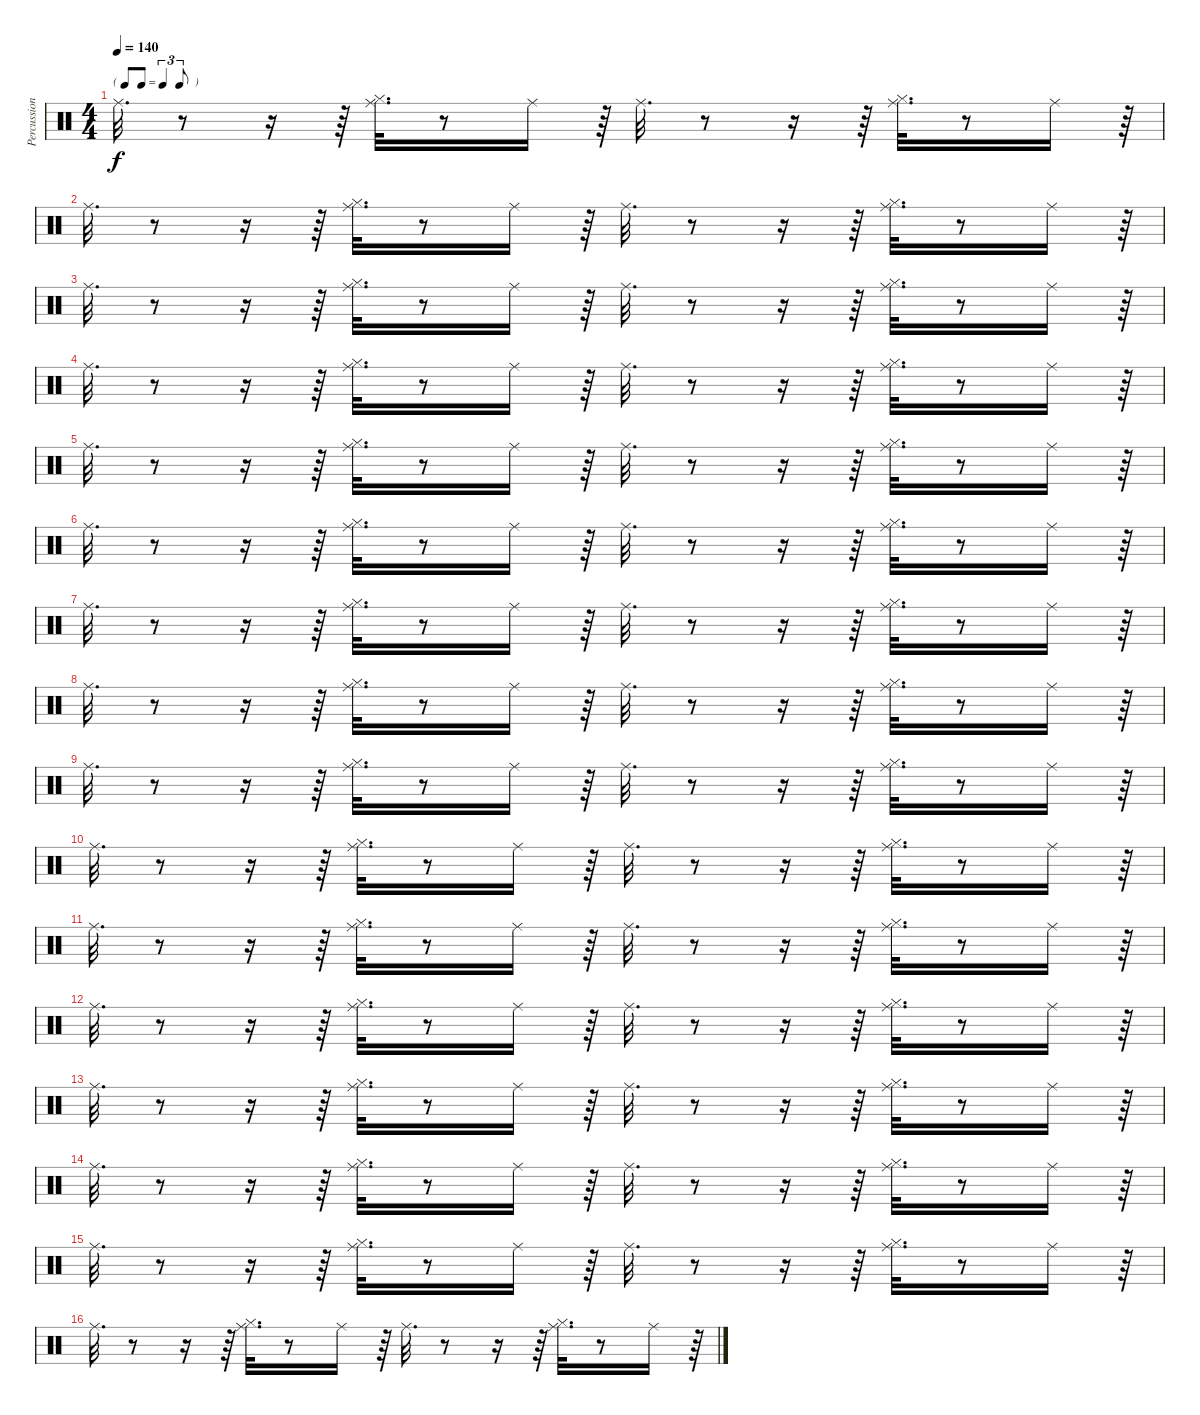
\track ("Percussions" "Percussion") {instrument percussion}
\staff {score}
\articulation defaults
\ts (4 4)
\tf triplet8th
\tempo 140
\clef neutral
\ks c "Ride (middle)".32{d dy f}
r.8 r.16 r.64 ("Hi-Hat (closed)" "Ride (middle)").32{d} r.8 "Ride (middle)".16 r.64 "Ride (middle)".32{d} r.8 r.16 r.64 ("Hi-Hat (closed)" "Ride (middle)").32{d} r.8 "Ride (middle)".16 r.64 |
"Ride (middle)".32{d} r.8 r.16 r.64 ("Hi-Hat (closed)" "Ride (middle)").32{d} r.8 "Ride (middle)".16 r.64 "Ride (middle)".32{d} r.8 r.16 r.64 ("Hi-Hat (closed)" "Ride (middle)").32{d} r.8 "Ride (middle)".16 r.64 |
"Ride (middle)".32{d} r.8 r.16 r.64 ("Hi-Hat (closed)" "Ride (middle)").32{d} r.8 "Ride (middle)".16 r.64 "Ride (middle)".32{d} r.8 r.16 r.64 ("Hi-Hat (closed)" "Ride (middle)").32{d} r.8 "Ride (middle)".16 r.64 |
"Ride (middle)".32{d} r.8 r.16 r.64 ("Hi-Hat (closed)" "Ride (middle)").32{d} r.8 "Ride (middle)".16 r.64 "Ride (middle)".32{d} r.8 r.16 r.64 ("Hi-Hat (closed)" "Ride (middle)").32{d} r.8 "Ride (middle)".16 r.64 |
"Ride (middle)".32{d} r.8 r.16 r.64 ("Hi-Hat (closed)" "Ride (middle)").32{d} r.8 "Ride (middle)".16 r.64 "Ride (middle)".32{d} r.8 r.16 r.64 ("Hi-Hat (closed)" "Ride (middle)").32{d} r.8 "Ride (middle)".16 r.64 |
"Ride (middle)".32{d} r.8 r.16 r.64 ("Hi-Hat (closed)" "Ride (middle)").32{d} r.8 "Ride (middle)".16 r.64 "Ride (middle)".32{d} r.8 r.16 r.64 ("Hi-Hat (closed)" "Ride (middle)").32{d} r.8 "Ride (middle)".16 r.64 |
"Ride (middle)".32{d} r.8 r.16 r.64 ("Hi-Hat (closed)" "Ride (middle)").32{d} r.8 "Ride (middle)".16 r.64 "Ride (middle)".32{d} r.8 r.16 r.64 ("Hi-Hat (closed)" "Ride (middle)").32{d} r.8 "Ride (middle)".16 r.64 |
"Ride (middle)".32{d} r.8 r.16 r.64 ("Hi-Hat (closed)" "Ride (middle)").32{d} r.8 "Ride (middle)".16 r.64 "Ride (middle)".32{d} r.8 r.16 r.64 ("Hi-Hat (closed)" "Ride (middle)").32{d} r.8 "Ride (middle)".16 r.64 |
"Ride (middle)".32{d} r.8 r.16 r.64 ("Hi-Hat (closed)" "Ride (middle)").32{d} r.8 "Ride (middle)".16 r.64 "Ride (middle)".32{d} r.8 r.16 r.64 ("Hi-Hat (closed)" "Ride (middle)").32{d} r.8 "Ride (middle)".16 r.64 |
"Ride (middle)".32{d} r.8 r.16 r.64 ("Hi-Hat (closed)" "Ride (middle)").32{d} r.8 "Ride (middle)".16 r.64 "Ride (middle)".32{d} r.8 r.16 r.64 ("Hi-Hat (closed)" "Ride (middle)").32{d} r.8 "Ride (middle)".16 r.64 |
"Ride (middle)".32{d} r.8 r.16 r.64 ("Hi-Hat (closed)" "Ride (middle)").32{d} r.8 "Ride (middle)".16 r.64 "Ride (middle)".32{d} r.8 r.16 r.64 ("Hi-Hat (closed)" "Ride (middle)").32{d} r.8 "Ride (middle)".16 r.64 |
"Ride (middle)".32{d} r.8 r.16 r.64 ("Hi-Hat (closed)" "Ride (middle)").32{d} r.8 "Ride (middle)".16 r.64 "Ride (middle)".32{d} r.8 r.16 r.64 ("Hi-Hat (closed)" "Ride (middle)").32{d} r.8 "Ride (middle)".16 r.64 |
"Ride (middle)".32{d} r.8 r.16 r.64 ("Hi-Hat (closed)" "Ride (middle)").32{d} r.8 "Ride (middle)".16 r.64 "Ride (middle)".32{d} r.8 r.16 r.64 ("Hi-Hat (closed)" "Ride (middle)").32{d} r.8 "Ride (middle)".16 r.64 |
"Ride (middle)".32{d} r.8 r.16 r.64 ("Hi-Hat (closed)" "Ride (middle)").32{d} r.8 "Ride (middle)".16 r.64 "Ride (middle)".32{d} r.8 r.16 r.64 ("Hi-Hat (closed)" "Ride (middle)").32{d} r.8 "Ride (middle)".16 r.64 |
"Ride (middle)".32{d} r.8 r.16 r.64 ("Hi-Hat (closed)" "Ride (middle)").32{d} r.8 "Ride (middle)".16 r.64 "Ride (middle)".32{d} r.8 r.16 r.64 ("Hi-Hat (closed)" "Ride (middle)").32{d} r.8 "Ride (middle)".16 r.64 |
"Ride (middle)".32{d} r.8 r.16 r.64 ("Hi-Hat (closed)" "Ride (middle)").32{d} r.8 "Ride (middle)".16 r.64 "Ride (middle)".32{d} r.8 r.16 r.64 ("Hi-Hat (closed)" "Ride (middle)").32{d} r.8 "Ride (middle)".16 r.64
